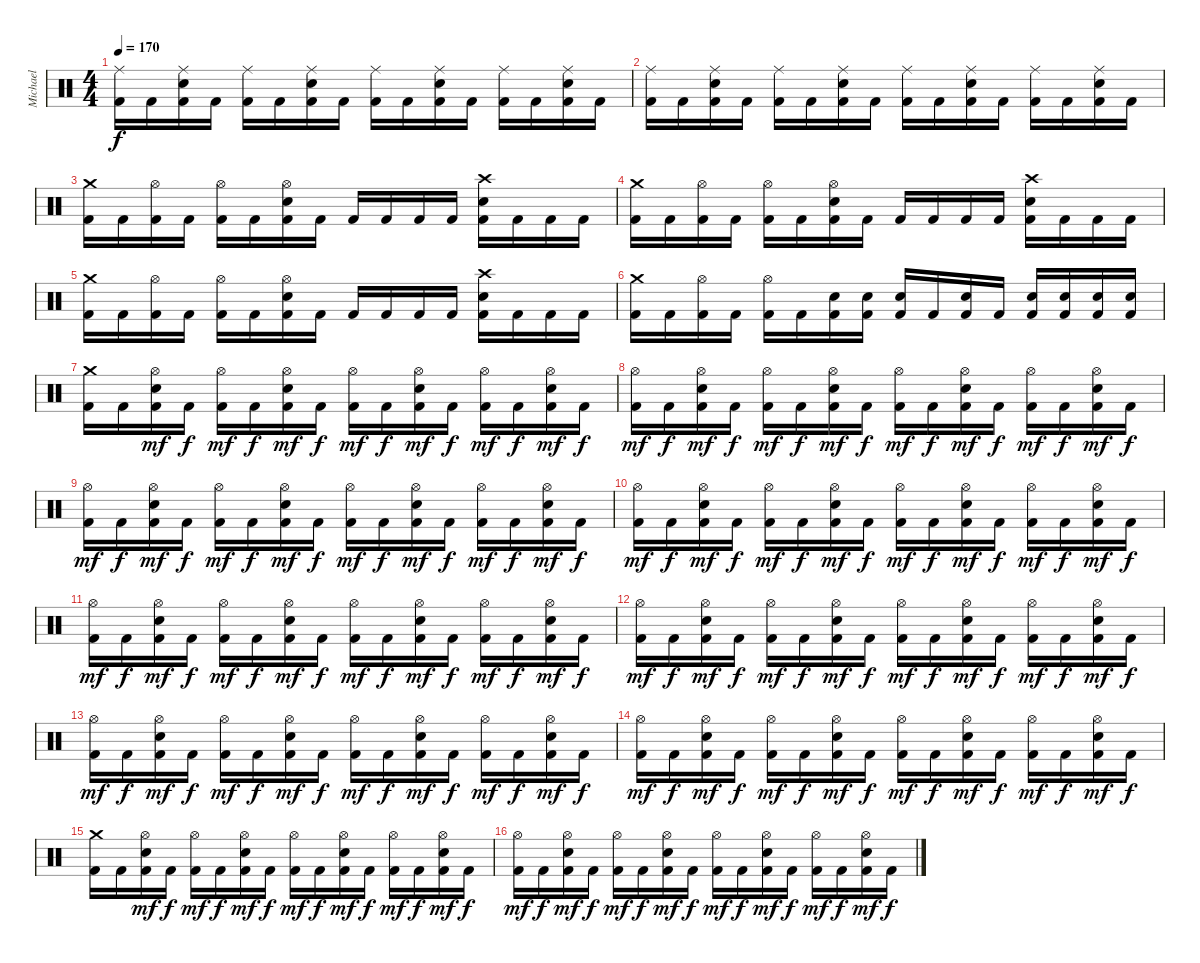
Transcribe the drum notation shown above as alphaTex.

\track ("Michael" "Michael") {instrument percussion}
\staff {score}
\articulation defaults
\ts (4 4)
\tempo 170
\clef neutral
\ks c
("Ride (middle)" "Kick (hit) 2").16{dy f} "Kick (hit) 2".16 ("Ride (middle)" "Electric Snare (hit)" "Kick (hit) 2").16 "Kick (hit) 2".16 ("Ride (middle)" "Kick (hit) 2").16 "Kick (hit) 2".16 ("Ride (middle)" "Electric Snare (hit)" "Kick (hit) 2").16 "Kick (hit) 2".16 ("Ride (middle)" "Kick (hit) 2").16 "Kick (hit) 2".16 ("Ride (middle)" "Electric Snare (hit)" "Kick (hit) 2").16 "Kick (hit) 2".16 ("Ride (middle)" "Kick (hit) 2").16 "Kick (hit) 2".16 ("Ride (middle)" "Electric Snare (hit)" "Kick (hit) 2").16 "Kick (hit) 2".16 |
("Ride (middle)" "Kick (hit) 2").16 "Kick (hit) 2".16 ("Ride (middle)" "Electric Snare (hit)" "Kick (hit) 2").16 "Kick (hit) 2".16 ("Ride (middle)" "Kick (hit) 2").16 "Kick (hit) 2".16 ("Ride (middle)" "Electric Snare (hit)" "Kick (hit) 2").16 "Kick (hit) 2".16 ("Ride (middle)" "Kick (hit) 2").16 "Kick (hit) 2".16 ("Ride (middle)" "Electric Snare (hit)" "Kick (hit) 2").16 "Kick (hit) 2".16 ("Ride (middle)" "Kick (hit) 2").16 "Kick (hit) 2".16 ("Ride (middle)" "Electric Snare (hit)" "Kick (hit) 2").16 "Kick (hit) 2".16 |
("Crash medium (hit)" "Kick (hit) 2").16 "Kick (hit) 2".16 ("Hi-Hat (open)" "Kick (hit) 2").16 "Kick (hit) 2".16 ("Hi-Hat (open)" "Kick (hit) 2").16 "Kick (hit) 2".16 ("Hi-Hat (open)" "Electric Snare (hit)" "Kick (hit) 2").16 "Kick (hit) 2".16 "Kick (hit) 2".16 "Kick (hit) 2".16 "Kick (hit) 2".16 "Kick (hit) 2".16 ("Crash high (hit)" "Electric Snare (hit)" "Kick (hit) 2").16 "Kick (hit) 2".16 "Kick (hit) 2".16 "Kick (hit) 2".16 |
("Crash medium (hit)" "Kick (hit) 2").16 "Kick (hit) 2".16 ("Hi-Hat (open)" "Kick (hit) 2").16 "Kick (hit) 2".16 ("Hi-Hat (open)" "Kick (hit) 2").16 "Kick (hit) 2".16 ("Hi-Hat (open)" "Electric Snare (hit)" "Kick (hit) 2").16 "Kick (hit) 2".16 "Kick (hit) 2".16 "Kick (hit) 2".16 "Kick (hit) 2".16 "Kick (hit) 2".16 ("Crash high (hit)" "Electric Snare (hit)" "Kick (hit) 2").16 "Kick (hit) 2".16 "Kick (hit) 2".16 "Kick (hit) 2".16 |
("Crash medium (hit)" "Kick (hit) 2").16 "Kick (hit) 2".16 ("Hi-Hat (open)" "Kick (hit) 2").16 "Kick (hit) 2".16 ("Hi-Hat (open)" "Kick (hit) 2").16 "Kick (hit) 2".16 ("Hi-Hat (open)" "Electric Snare (hit)" "Kick (hit) 2").16 "Kick (hit) 2".16 "Kick (hit) 2".16 "Kick (hit) 2".16 "Kick (hit) 2".16 "Kick (hit) 2".16 ("Crash high (hit)" "Electric Snare (hit)" "Kick (hit) 2").16 "Kick (hit) 2".16 "Kick (hit) 2".16 "Kick (hit) 2".16 |
("Crash medium (hit)" "Kick (hit) 2").16 "Kick (hit) 2".16 ("Hi-Hat (open)" "Kick (hit) 2").16 "Kick (hit) 2".16 ("Hi-Hat (open)" "Kick (hit) 2").16 "Kick (hit) 2".16 ("Electric Snare (hit)" "Kick (hit) 2").16 ("Electric Snare (hit)" "Kick (hit) 2").16 ("Electric Snare (hit)" "Kick (hit) 2").16 "Kick (hit) 2".16 ("Electric Snare (hit)" "Kick (hit) 2").16 "Kick (hit) 2".16 ("Electric Snare (hit)" "Kick (hit) 2").16 ("Electric Snare (hit)" "Kick (hit) 2").16 ("Electric Snare (hit)" "Kick (hit) 2").16 ("Electric Snare (hit)" "Kick (hit) 2").16 |
("Crash medium (hit)" "Kick (hit) 2").16 "Kick (hit) 2".16 ("Hi-Hat (open)" "Electric Snare (hit)" "Kick (hit) 2").16{dy mf} "Kick (hit) 2".16{dy f} ("Hi-Hat (open)" "Kick (hit) 2").16{dy mf} "Kick (hit) 2".16{dy f} ("Hi-Hat (open)" "Electric Snare (hit)" "Kick (hit) 2").16{dy mf} "Kick (hit) 2".16{dy f} ("Hi-Hat (open)" "Kick (hit) 2").16{dy mf} "Kick (hit) 2".16{dy f} ("Hi-Hat (open)" "Electric Snare (hit)" "Kick (hit) 2").16{dy mf} "Kick (hit) 2".16{dy f} ("Hi-Hat (open)" "Kick (hit) 2").16{dy mf} "Kick (hit) 2".16{dy f} ("Hi-Hat (open)" "Electric Snare (hit)" "Kick (hit) 2").16{dy mf} "Kick (hit) 2".16{dy f} |
("Hi-Hat (open)" "Kick (hit) 2").16{dy mf} "Kick (hit) 2".16{dy f} ("Hi-Hat (open)" "Electric Snare (hit)" "Kick (hit) 2").16{dy mf} "Kick (hit) 2".16{dy f} ("Hi-Hat (open)" "Kick (hit) 2").16{dy mf} "Kick (hit) 2".16{dy f} ("Hi-Hat (open)" "Electric Snare (hit)" "Kick (hit) 2").16{dy mf} "Kick (hit) 2".16{dy f} ("Hi-Hat (open)" "Kick (hit) 2").16{dy mf} "Kick (hit) 2".16{dy f} ("Hi-Hat (open)" "Electric Snare (hit)" "Kick (hit) 2").16{dy mf} "Kick (hit) 2".16{dy f} ("Hi-Hat (open)" "Kick (hit) 2").16{dy mf} "Kick (hit) 2".16{dy f} ("Hi-Hat (open)" "Electric Snare (hit)" "Kick (hit) 2").16{dy mf} "Kick (hit) 2".16{dy f} |
("Hi-Hat (open)" "Kick (hit) 2").16{dy mf} "Kick (hit) 2".16{dy f} ("Hi-Hat (open)" "Electric Snare (hit)" "Kick (hit) 2").16{dy mf} "Kick (hit) 2".16{dy f} ("Hi-Hat (open)" "Kick (hit) 2").16{dy mf} "Kick (hit) 2".16{dy f} ("Hi-Hat (open)" "Electric Snare (hit)" "Kick (hit) 2").16{dy mf} "Kick (hit) 2".16{dy f} ("Hi-Hat (open)" "Kick (hit) 2").16{dy mf} "Kick (hit) 2".16{dy f} ("Hi-Hat (open)" "Electric Snare (hit)" "Kick (hit) 2").16{dy mf} "Kick (hit) 2".16{dy f} ("Hi-Hat (open)" "Kick (hit) 2").16{dy mf} "Kick (hit) 2".16{dy f} ("Hi-Hat (open)" "Electric Snare (hit)" "Kick (hit) 2").16{dy mf} "Kick (hit) 2".16{dy f} |
("Hi-Hat (open)" "Kick (hit) 2").16{dy mf} "Kick (hit) 2".16{dy f} ("Hi-Hat (open)" "Electric Snare (hit)" "Kick (hit) 2").16{dy mf} "Kick (hit) 2".16{dy f} ("Hi-Hat (open)" "Kick (hit) 2").16{dy mf} "Kick (hit) 2".16{dy f} ("Hi-Hat (open)" "Electric Snare (hit)" "Kick (hit) 2").16{dy mf} "Kick (hit) 2".16{dy f} ("Hi-Hat (open)" "Kick (hit) 2").16{dy mf} "Kick (hit) 2".16{dy f} ("Hi-Hat (open)" "Electric Snare (hit)" "Kick (hit) 2").16{dy mf} "Kick (hit) 2".16{dy f} ("Hi-Hat (open)" "Kick (hit) 2").16{dy mf} "Kick (hit) 2".16{dy f} ("Hi-Hat (open)" "Electric Snare (hit)" "Kick (hit) 2").16{dy mf} "Kick (hit) 2".16{dy f} |
("Hi-Hat (open)" "Kick (hit) 2").16{dy mf} "Kick (hit) 2".16{dy f} ("Hi-Hat (open)" "Electric Snare (hit)" "Kick (hit) 2").16{dy mf} "Kick (hit) 2".16{dy f} ("Hi-Hat (open)" "Kick (hit) 2").16{dy mf} "Kick (hit) 2".16{dy f} ("Hi-Hat (open)" "Electric Snare (hit)" "Kick (hit) 2").16{dy mf} "Kick (hit) 2".16{dy f} ("Hi-Hat (open)" "Kick (hit) 2").16{dy mf} "Kick (hit) 2".16{dy f} ("Hi-Hat (open)" "Electric Snare (hit)" "Kick (hit) 2").16{dy mf} "Kick (hit) 2".16{dy f} ("Hi-Hat (open)" "Kick (hit) 2").16{dy mf} "Kick (hit) 2".16{dy f} ("Hi-Hat (open)" "Electric Snare (hit)" "Kick (hit) 2").16{dy mf} "Kick (hit) 2".16{dy f} |
("Hi-Hat (open)" "Kick (hit) 2").16{dy mf} "Kick (hit) 2".16{dy f} ("Hi-Hat (open)" "Electric Snare (hit)" "Kick (hit) 2").16{dy mf} "Kick (hit) 2".16{dy f} ("Hi-Hat (open)" "Kick (hit) 2").16{dy mf} "Kick (hit) 2".16{dy f} ("Hi-Hat (open)" "Electric Snare (hit)" "Kick (hit) 2").16{dy mf} "Kick (hit) 2".16{dy f} ("Hi-Hat (open)" "Kick (hit) 2").16{dy mf} "Kick (hit) 2".16{dy f} ("Hi-Hat (open)" "Electric Snare (hit)" "Kick (hit) 2").16{dy mf} "Kick (hit) 2".16{dy f} ("Hi-Hat (open)" "Kick (hit) 2").16{dy mf} "Kick (hit) 2".16{dy f} ("Hi-Hat (open)" "Electric Snare (hit)" "Kick (hit) 2").16{dy mf} "Kick (hit) 2".16{dy f} |
("Hi-Hat (open)" "Kick (hit) 2").16{dy mf} "Kick (hit) 2".16{dy f} ("Hi-Hat (open)" "Electric Snare (hit)" "Kick (hit) 2").16{dy mf} "Kick (hit) 2".16{dy f} ("Hi-Hat (open)" "Kick (hit) 2").16{dy mf} "Kick (hit) 2".16{dy f} ("Hi-Hat (open)" "Electric Snare (hit)" "Kick (hit) 2").16{dy mf} "Kick (hit) 2".16{dy f} ("Hi-Hat (open)" "Kick (hit) 2").16{dy mf} "Kick (hit) 2".16{dy f} ("Hi-Hat (open)" "Electric Snare (hit)" "Kick (hit) 2").16{dy mf} "Kick (hit) 2".16{dy f} ("Hi-Hat (open)" "Kick (hit) 2").16{dy mf} "Kick (hit) 2".16{dy f} ("Hi-Hat (open)" "Electric Snare (hit)" "Kick (hit) 2").16{dy mf} "Kick (hit) 2".16{dy f} |
("Hi-Hat (open)" "Kick (hit) 2").16{dy mf} "Kick (hit) 2".16{dy f} ("Hi-Hat (open)" "Electric Snare (hit)" "Kick (hit) 2").16{dy mf} "Kick (hit) 2".16{dy f} ("Hi-Hat (open)" "Kick (hit) 2").16{dy mf} "Kick (hit) 2".16{dy f} ("Hi-Hat (open)" "Electric Snare (hit)" "Kick (hit) 2").16{dy mf} "Kick (hit) 2".16{dy f} ("Hi-Hat (open)" "Kick (hit) 2").16{dy mf} "Kick (hit) 2".16{dy f} ("Hi-Hat (open)" "Electric Snare (hit)" "Kick (hit) 2").16{dy mf} "Kick (hit) 2".16{dy f} ("Hi-Hat (open)" "Kick (hit) 2").16{dy mf} "Kick (hit) 2".16{dy f} ("Hi-Hat (open)" "Electric Snare (hit)" "Kick (hit) 2").16{dy mf} "Kick (hit) 2".16{dy f} |
("Crash medium (hit)" "Kick (hit) 2").16 "Kick (hit) 2".16 ("Hi-Hat (open)" "Electric Snare (hit)" "Kick (hit) 2").16{dy mf} "Kick (hit) 2".16{dy f} ("Hi-Hat (open)" "Kick (hit) 2").16{dy mf} "Kick (hit) 2".16{dy f} ("Hi-Hat (open)" "Electric Snare (hit)" "Kick (hit) 2").16{dy mf} "Kick (hit) 2".16{dy f} ("Hi-Hat (open)" "Kick (hit) 2").16{dy mf} "Kick (hit) 2".16{dy f} ("Hi-Hat (open)" "Electric Snare (hit)" "Kick (hit) 2").16{dy mf} "Kick (hit) 2".16{dy f} ("Hi-Hat (open)" "Kick (hit) 2").16{dy mf} "Kick (hit) 2".16{dy f} ("Hi-Hat (open)" "Electric Snare (hit)" "Kick (hit) 2").16{dy mf} "Kick (hit) 2".16{dy f} |
("Hi-Hat (open)" "Kick (hit) 2").16{dy mf} "Kick (hit) 2".16{dy f} ("Hi-Hat (open)" "Electric Snare (hit)" "Kick (hit) 2").16{dy mf} "Kick (hit) 2".16{dy f} ("Hi-Hat (open)" "Kick (hit) 2").16{dy mf} "Kick (hit) 2".16{dy f} ("Hi-Hat (open)" "Electric Snare (hit)" "Kick (hit) 2").16{dy mf} "Kick (hit) 2".16{dy f} ("Hi-Hat (open)" "Kick (hit) 2").16{dy mf} "Kick (hit) 2".16{dy f} ("Hi-Hat (open)" "Electric Snare (hit)" "Kick (hit) 2").16{dy mf} "Kick (hit) 2".16{dy f} ("Hi-Hat (open)" "Kick (hit) 2").16{dy mf} "Kick (hit) 2".16{dy f} ("Hi-Hat (open)" "Electric Snare (hit)" "Kick (hit) 2").16{dy mf} "Kick (hit) 2".16{dy f}
